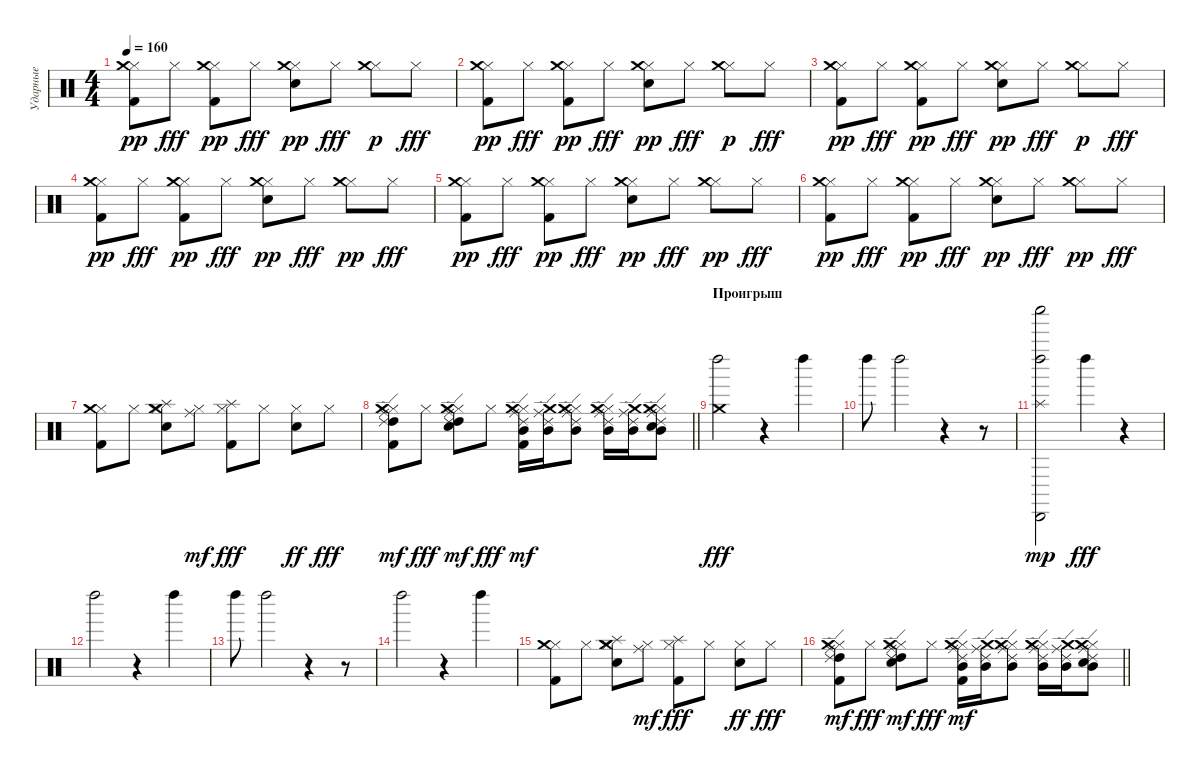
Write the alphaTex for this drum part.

\track ("Ударные" "Ударные") {instrument percussion}
\staff {score}
\articulation defaults
\ts (4 4)
\tempo 160
\clef neutral
\ks c
("Hi-Hat (closed)" "Kick (hit) 2" "Crash medium (hit)").8{dy pp} "Hi-Hat (closed)".8{dy fff} ("Hi-Hat (closed)" "Kick (hit) 2" "Crash medium (hit)").8{dy pp} "Hi-Hat (closed)".8{dy fff} ("Hi-Hat (closed)" "Snare (hit) 2" "Crash medium (hit)").8{dy pp} "Hi-Hat (closed)".8{dy fff} ("Hi-Hat (closed)" "Crash medium (hit)").8{dy p} "Hi-Hat (closed)".8{dy fff} |
("Hi-Hat (closed)" "Kick (hit) 2" "Crash medium (hit)").8{dy pp} "Hi-Hat (closed)".8{dy fff} ("Hi-Hat (closed)" "Kick (hit) 2" "Crash medium (hit)").8{dy pp} "Hi-Hat (closed)".8{dy fff} ("Hi-Hat (closed)" "Snare (hit) 2" "Crash medium (hit)").8{dy pp} "Hi-Hat (closed)".8{dy fff} ("Hi-Hat (closed)" "Crash medium (hit)").8{dy p} "Hi-Hat (closed)".8{dy fff} |
("Hi-Hat (closed)" "Kick (hit) 2" "Crash medium (hit)").8{dy pp} "Hi-Hat (closed)".8{dy fff} ("Hi-Hat (closed)" "Kick (hit) 2" "Crash medium (hit)").8{dy pp} "Hi-Hat (closed)".8{dy fff} ("Hi-Hat (closed)" "Snare (hit) 2" "Crash medium (hit)").8{dy pp} "Hi-Hat (closed)".8{dy fff} ("Hi-Hat (closed)" "Crash medium (hit)").8{dy p} "Hi-Hat (closed)".8{dy fff} |
("Hi-Hat (closed)" "Kick (hit) 2" "Crash medium (hit)").8{dy pp} "Hi-Hat (closed)".8{dy fff} ("Hi-Hat (closed)" "Kick (hit) 2" "Crash medium (hit)").8{dy pp} "Hi-Hat (closed)".8{dy fff} ("Hi-Hat (closed)" "Snare (hit) 2" "Crash medium (hit)").8{dy pp} "Hi-Hat (closed)".8{dy fff} ("Hi-Hat (closed)" "Crash medium (hit)").8{dy pp} "Hi-Hat (closed)".8{dy fff} |
("Hi-Hat (closed)" "Kick (hit) 2" "Crash medium (hit)").8{dy pp} "Hi-Hat (closed)".8{dy fff} ("Hi-Hat (closed)" "Kick (hit) 2" "Crash medium (hit)").8{dy pp} "Hi-Hat (closed)".8{dy fff} ("Hi-Hat (closed)" "Snare (hit) 2" "Crash medium (hit)").8{dy pp} "Hi-Hat (closed)".8{dy fff} ("Hi-Hat (closed)" "Crash medium (hit)").8{dy pp} "Hi-Hat (closed)".8{dy fff} |
("Hi-Hat (closed)" "Kick (hit) 2" "Crash medium (hit)").8{dy pp} "Hi-Hat (closed)".8{dy fff} ("Hi-Hat (closed)" "Kick (hit) 2" "Crash medium (hit)").8{dy pp} "Hi-Hat (closed)".8{dy fff} ("Hi-Hat (closed)" "Snare (hit) 2" "Crash medium (hit)").8{dy pp} "Hi-Hat (closed)".8{dy fff} ("Hi-Hat (closed)" "Crash medium (hit)").8{dy pp} "Hi-Hat (closed)".8{dy fff} |
("Hi-Hat (closed)" "Kick (hit) 2" "Crash medium (hit)").8 "Hi-Hat (closed)".8 ("Hi-Hat (closed)" "Snare (hit) 2" "Crash medium (hit)" "Splash (hit)").8 ("Hi-Hat (closed)" "Ride (middle)").8{dy mf} ("Hi-Hat (closed)" "Kick (hit) 2" "Splash (hit)").8{dy fff} "Hi-Hat (closed)".8 ("Hi-Hat (closed)" "Snare (hit) 2").8{dy ff} "Hi-Hat (closed)".8{dy fff} |
\barLineRight lightlight
("Hi-Hat (closed)" "Kick (hit) 2" "High Tom (hit)" "Ride (middle)" "Ride (edge) 2" "Crash medium (hit)").8{dy mf} "Hi-Hat (closed)".8{dy fff} ("Hi-Hat (closed)" "Snare (hit) 2" "High Tom (hit)" "Ride (middle)" "Ride (edge) 2" "Crash medium (hit)").8{dy mf} "Hi-Hat (closed)".8{dy fff} ("Hi-Hat (closed)" "Kick (hit) 2" "Mid Tom (hit)" "Ride (middle)" "Ride (edge) 2" "Crash medium (hit)").16{dy mf} ("Mid Tom (hit)" "Ride (middle)" "Ride (edge) 2" "Crash medium (hit)").16 ("Hi-Hat (closed)" "Mid Tom (hit)" "Ride (middle)" "Ride (edge) 2" "Crash medium (hit)").8 ("Hi-Hat (closed)" "Mid Tom (hit)" "Ride (middle)" "Ride (edge) 2" "Crash medium (hit)").16 ("Mid Tom (hit)" "Ride (middle)" "Ride (edge) 2" "Crash medium (hit)").16 ("Hi-Hat (closed)" "Snare (hit) 2" "Mid Tom (hit)" "Ride (middle)" "Ride (edge) 2" "Crash medium (hit)").8 |
\section ("" "Проигрыш")
("Left Maraca (hit)" "Crash medium (hit)").2{dy fff} r.4 "Left Maraca (hit)".4 |
"Left Maraca (hit)".8 "Left Maraca (hit)".2 r.4 r.8 |
("Left Maraca (hit)" "Cabasa (hit)" "Shaker (hit)" "Splash (hit)").2{dy mp} "Left Maraca (hit)".4{dy fff} r.4 |
"Left Maraca (hit)".2 r.4 "Left Maraca (hit)".4 |
"Left Maraca (hit)".8 "Left Maraca (hit)".2 r.4 r.8 |
"Left Maraca (hit)".2 r.4 "Left Maraca (hit)".4 |
("Hi-Hat (closed)" "Kick (hit) 2" "Crash medium (hit)").8 "Hi-Hat (closed)".8 ("Hi-Hat (closed)" "Snare (hit) 2" "Crash medium (hit)" "Splash (hit)").8 ("Hi-Hat (closed)" "Ride (middle)").8{dy mf} ("Hi-Hat (closed)" "Kick (hit) 2" "Splash (hit)").8{dy fff} "Hi-Hat (closed)".8 ("Hi-Hat (closed)" "Snare (hit) 2").8{dy ff} "Hi-Hat (closed)".8{dy fff} |
\barLineRight lightlight
("Hi-Hat (closed)" "Kick (hit) 2" "High Tom (hit)" "Ride (middle)" "Ride (edge) 2" "Crash medium (hit)").8{dy mf} "Hi-Hat (closed)".8{dy fff} ("Hi-Hat (closed)" "Snare (hit) 2" "High Tom (hit)" "Ride (middle)" "Ride (edge) 2" "Crash medium (hit)").8{dy mf} "Hi-Hat (closed)".8{dy fff} ("Hi-Hat (closed)" "Kick (hit) 2" "Mid Tom (hit)" "Ride (middle)" "Ride (edge) 2" "Crash medium (hit)").16{dy mf} ("Mid Tom (hit)" "Ride (middle)" "Ride (edge) 2" "Crash medium (hit)").16 ("Hi-Hat (closed)" "Mid Tom (hit)" "Ride (middle)" "Ride (edge) 2" "Crash medium (hit)").8 ("Hi-Hat (closed)" "Mid Tom (hit)" "Ride (middle)" "Ride (edge) 2" "Crash medium (hit)").16 ("Mid Tom (hit)" "Ride (middle)" "Ride (edge) 2" "Crash medium (hit)").16 ("Hi-Hat (closed)" "Snare (hit) 2" "Mid Tom (hit)" "Ride (middle)" "Ride (edge) 2" "Crash medium (hit)").8
